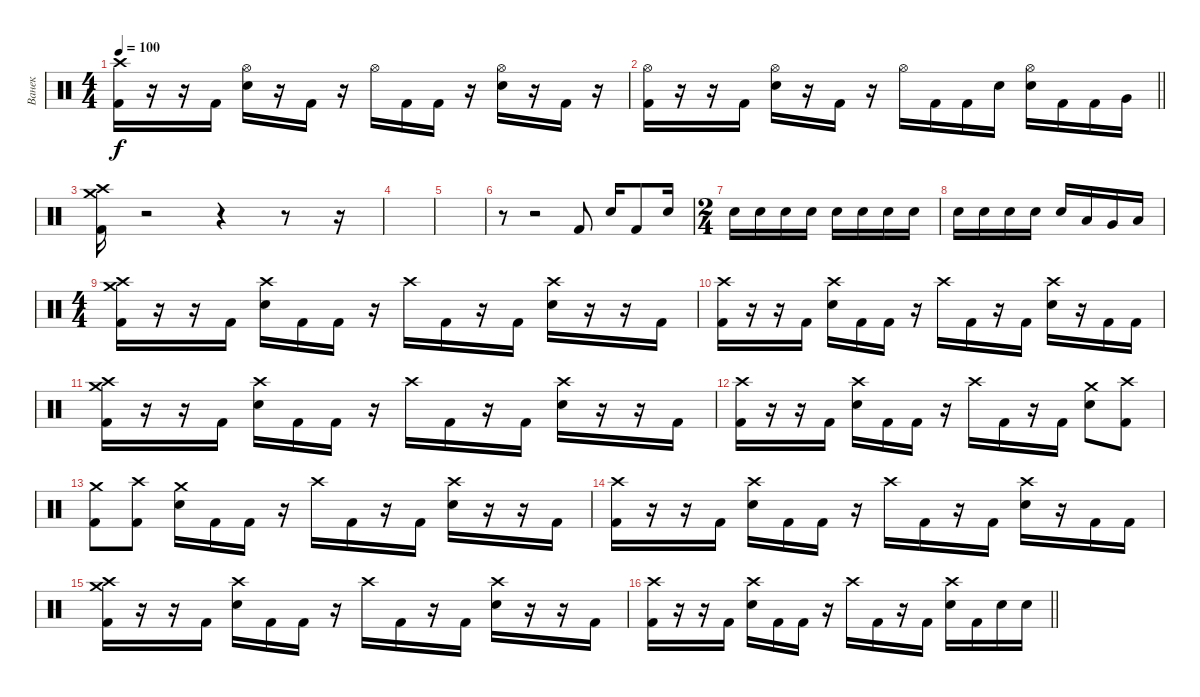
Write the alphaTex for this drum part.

\track ("Ванек" "Ванек") {instrument percussion}
\staff {score}
\articulation defaults
\ts (4 4)
\tempo 100
\clef neutral
\ks c
("Crash high (hit)" "Kick (hit) 2").16{dy f} r.16 r.16 "Kick (hit) 2".16 ("Hi-Hat (open)" "Snare (hit) 2").16 r.16 "Kick (hit) 2".16 r.16 "Hi-Hat (open)".16 "Kick (hit) 2".16 "Kick (hit) 2".16 r.16 ("Hi-Hat (open)" "Snare (hit) 2").16 r.16 "Kick (hit) 2".16 r.16 |
\barLineRight lightlight
("Hi-Hat (open)" "Kick (hit) 2").16 r.16 r.16 "Kick (hit) 2".16 ("Hi-Hat (open)" "Snare (hit) 2").16 r.16 "Kick (hit) 2".16 r.16 "Hi-Hat (open)".16 "Kick (hit) 2".16 "Kick (hit) 2".16 "Snare (hit) 2".16 ("Hi-Hat (open)" "Snare (hit) 2").16 "Kick (hit) 2".16 "Kick (hit) 2".16 "Very Low Tom (hit)".16 |
("Crash high (hit)" "Crash medium (hit)" "Kick (hit) 2").16 r.2 r.4 r.8 r.16 |
|
|
r.8 r.2 "Kick (hit) 2".8 "Snare (hit) 2".16 "Kick (hit) 2".8 "Snare (hit) 2".16 |
\ts (2 4)
"Snare (hit) 2".16 "Snare (hit) 2".16 "Snare (hit) 2".16 "Snare (hit) 2".16 "Snare (hit) 2".16 "Snare (hit) 2".16 "Snare (hit) 2".16 "Snare (hit) 2".16 |
"Snare (hit) 2".16 "Snare (hit) 2".16 "Snare (hit) 2".16 "Snare (hit) 2".16 "Snare (hit) 2".16 "Low Floor Tom (hit)".16 "Very Low Tom (hit)".16 "Low Tom (hit)".16 |
\ts (4 4)
("Crash high (hit)" "Crash medium (hit)" "Kick (hit) 2").16 r.16 r.16 "Kick (hit) 2".16 ("Crash high (hit)" "Snare (hit) 2").16 "Kick (hit) 2".16 "Kick (hit) 2".16 r.16 "Crash high (hit)".16 "Kick (hit) 2".16 r.16 "Kick (hit) 2".16 ("Crash high (hit)" "Snare (hit) 2").16 r.16 r.16 "Kick (hit) 2".16 |
("Crash high (hit)" "Kick (hit) 2").16 r.16 r.16 "Kick (hit) 2".16 ("Crash high (hit)" "Snare (hit) 2").16 "Kick (hit) 2".16 "Kick (hit) 2".16 r.16 "Crash high (hit)".16 "Kick (hit) 2".16 r.16 "Kick (hit) 2".16 ("Crash high (hit)" "Snare (hit) 2").16 r.16 "Kick (hit) 2".16 "Kick (hit) 2".16 |
("Crash high (hit)" "Crash medium (hit)" "Kick (hit) 2").16 r.16 r.16 "Kick (hit) 2".16 ("Crash high (hit)" "Snare (hit) 2").16 "Kick (hit) 2".16 "Kick (hit) 2".16 r.16 "Crash high (hit)".16 "Kick (hit) 2".16 r.16 "Kick (hit) 2".16 ("Crash high (hit)" "Snare (hit) 2").16 r.16 r.16 "Kick (hit) 2".16 |
("Crash high (hit)" "Kick (hit) 2").16 r.16 r.16 "Kick (hit) 2".16 ("Crash high (hit)" "Snare (hit) 2").16 "Kick (hit) 2".16 "Kick (hit) 2".16 r.16 "Crash high (hit)".16 "Kick (hit) 2".16 r.16 "Kick (hit) 2".16 ("Crash medium (hit)" "Snare (hit) 2").8 ("Crash high (hit)" "Kick (hit) 2").8 |
("Crash medium (hit)" "Kick (hit) 2").8 ("Crash high (hit)" "Kick (hit) 2").8 ("Crash medium (hit)" "Snare (hit) 2").16 "Kick (hit) 2".16 "Kick (hit) 2".16 r.16 "Crash high (hit)".16 "Kick (hit) 2".16 r.16 "Kick (hit) 2".16 ("Crash high (hit)" "Snare (hit) 2").16 r.16 r.16 "Kick (hit) 2".16 |
("Crash high (hit)" "Kick (hit) 2").16 r.16 r.16 "Kick (hit) 2".16 ("Crash high (hit)" "Snare (hit) 2").16 "Kick (hit) 2".16 "Kick (hit) 2".16 r.16 "Crash high (hit)".16 "Kick (hit) 2".16 r.16 "Kick (hit) 2".16 ("Crash high (hit)" "Snare (hit) 2").16 r.16 "Kick (hit) 2".16 "Kick (hit) 2".16 |
("Crash high (hit)" "Crash medium (hit)" "Kick (hit) 2").16 r.16 r.16 "Kick (hit) 2".16 ("Crash high (hit)" "Snare (hit) 2").16 "Kick (hit) 2".16 "Kick (hit) 2".16 r.16 "Crash high (hit)".16 "Kick (hit) 2".16 r.16 "Kick (hit) 2".16 ("Crash high (hit)" "Snare (hit) 2").16 r.16 r.16 "Kick (hit) 2".16 |
\barLineRight lightlight
("Crash high (hit)" "Kick (hit) 2").16 r.16 r.16 "Kick (hit) 2".16 ("Crash high (hit)" "Snare (hit) 2").16 "Kick (hit) 2".16 "Kick (hit) 2".16 r.16 "Crash high (hit)".16 "Kick (hit) 2".16 r.16 "Kick (hit) 2".16 ("Crash high (hit)" "Snare (hit) 2").16 "Kick (hit) 2".16 "Snare (hit) 2".16 "Snare (hit) 2".16
